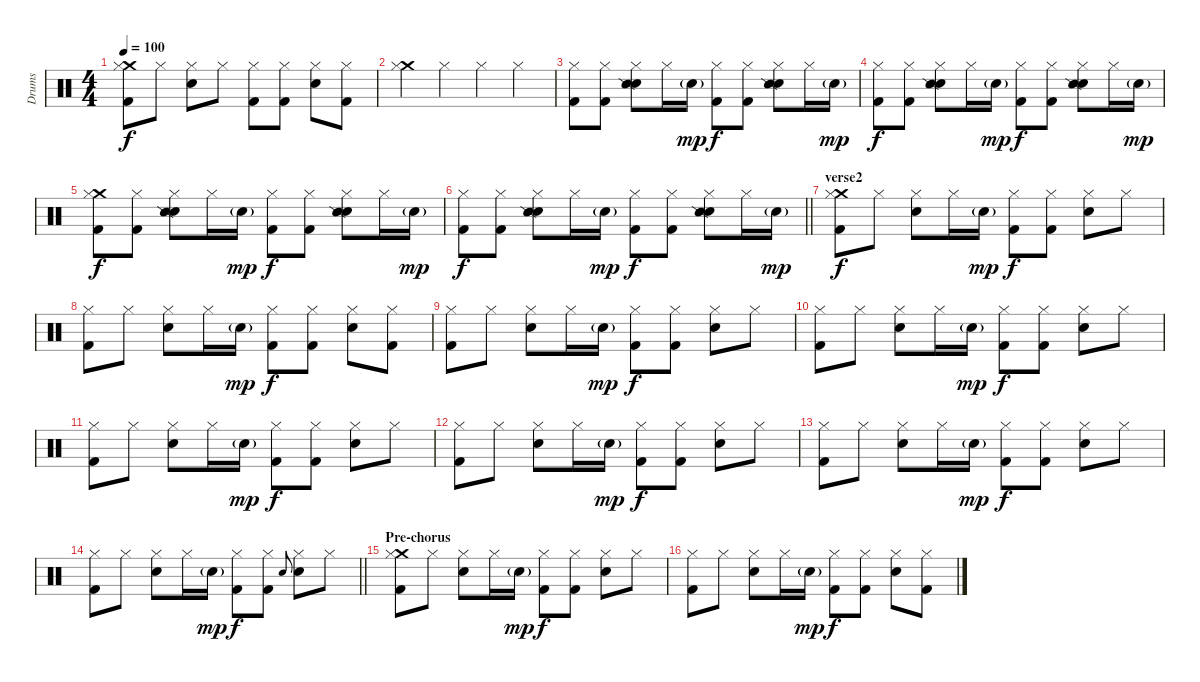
\track ("Drums" "Drums") {instrument percussion}
\staff {score}
\articulation defaults
\ts (4 4)
\tempo 100
\clef neutral
\ks c
("Crash medium (hit)" "Kick (hit) 2" "Hi-Hat (closed)").8{dy f} "Hi-Hat (closed)".8 ("Electric Snare (hit)" "Hi-Hat (closed)").8 "Hi-Hat (closed)".8 ("Kick (hit) 2" "Hi-Hat (closed)").8 ("Kick (hit) 2" "Hi-Hat (closed)").8 ("Electric Snare (hit)" "Hi-Hat (closed)").8 ("Kick (hit) 2" "Hi-Hat (closed)").8 |
("Crash medium (hit)" "Hi-Hat (closed)").4 "Hi-Hat (closed)".4 "Hi-Hat (closed)".4 "Hi-Hat (closed)".4 |
("Hi-Hat (closed)" "Kick (hit) 2").8 ("Hi-Hat (closed)" "Kick (hit) 2").8 ("Hi-Hat (closed)" "Electric Snare (hit)" "Snare (side stick) 2").8 "Hi-Hat (closed)".16 "Electric Snare (hit)"{g}.16{dy mp} ("Hi-Hat (closed)" "Kick (hit) 2").8{dy f} ("Hi-Hat (closed)" "Kick (hit) 2").8 ("Hi-Hat (closed)" "Electric Snare (hit)" "Snare (side stick) 2").8 "Hi-Hat (closed)".16 "Electric Snare (hit)"{g}.16{dy mp} |
("Hi-Hat (closed)" "Kick (hit) 2").8{dy f} ("Hi-Hat (closed)" "Kick (hit) 2").8 ("Hi-Hat (closed)" "Electric Snare (hit)" "Snare (side stick) 2").8 "Hi-Hat (closed)".16 "Electric Snare (hit)"{g}.16{dy mp} ("Hi-Hat (closed)" "Kick (hit) 2").8{dy f} ("Hi-Hat (closed)" "Kick (hit) 2").8 ("Hi-Hat (closed)" "Electric Snare (hit)" "Snare (side stick) 2").8 "Hi-Hat (closed)".16 "Electric Snare (hit)"{g}.16{dy mp} |
("Crash medium (hit)" "Hi-Hat (closed)" "Kick (hit) 2").8{dy f} ("Hi-Hat (closed)" "Kick (hit) 2").8 ("Hi-Hat (closed)" "Electric Snare (hit)" "Snare (side stick) 2").8 "Hi-Hat (closed)".16 "Electric Snare (hit)"{g}.16{dy mp} ("Hi-Hat (closed)" "Kick (hit) 2").8{dy f} ("Hi-Hat (closed)" "Kick (hit) 2").8 ("Hi-Hat (closed)" "Electric Snare (hit)" "Snare (side stick) 2").8 "Hi-Hat (closed)".16 "Electric Snare (hit)"{g}.16{dy mp} |
\barLineRight lightlight
("Hi-Hat (closed)" "Kick (hit) 2").8{dy f} ("Hi-Hat (closed)" "Kick (hit) 2").8 ("Hi-Hat (closed)" "Electric Snare (hit)" "Snare (side stick) 2").8 "Hi-Hat (closed)".16 "Electric Snare (hit)"{g}.16{dy mp} ("Hi-Hat (closed)" "Kick (hit) 2").8{dy f} ("Hi-Hat (closed)" "Kick (hit) 2").8 ("Hi-Hat (closed)" "Electric Snare (hit)" "Snare (side stick) 2").8 "Hi-Hat (closed)".16 "Electric Snare (hit)"{g}.16{dy mp} |
\section ("" "verse2")
("Crash medium (hit)" "Kick (hit) 2" "Hi-Hat (closed)").8{dy f} "Hi-Hat (closed)".8 ("Electric Snare (hit)" "Hi-Hat (closed)").8 "Hi-Hat (closed)".16 "Electric Snare (hit)"{g}.16{dy mp} ("Kick (hit) 2" "Hi-Hat (closed)").8{dy f} ("Kick (hit) 2" "Hi-Hat (closed)").8 ("Electric Snare (hit)" "Hi-Hat (closed)").8 "Hi-Hat (closed)".8 |
("Kick (hit) 2" "Hi-Hat (closed)").8 "Hi-Hat (closed)".8 ("Electric Snare (hit)" "Hi-Hat (closed)").8 "Hi-Hat (closed)".16 "Electric Snare (hit)"{g}.16{dy mp} ("Kick (hit) 2" "Hi-Hat (closed)").8{dy f} ("Kick (hit) 2" "Hi-Hat (closed)").8 ("Electric Snare (hit)" "Hi-Hat (closed)").8 ("Kick (hit) 2" "Hi-Hat (closed)").8 |
("Kick (hit) 2" "Hi-Hat (closed)").8 "Hi-Hat (closed)".8 ("Electric Snare (hit)" "Hi-Hat (closed)").8 "Hi-Hat (closed)".16 "Electric Snare (hit)"{g}.16{dy mp} ("Kick (hit) 2" "Hi-Hat (closed)").8{dy f} ("Kick (hit) 2" "Hi-Hat (closed)").8 ("Electric Snare (hit)" "Hi-Hat (closed)").8 "Hi-Hat (closed)".8 |
("Kick (hit) 2" "Hi-Hat (closed)").8 "Hi-Hat (closed)".8 ("Electric Snare (hit)" "Hi-Hat (closed)").8 "Hi-Hat (closed)".16 "Electric Snare (hit)"{g}.16{dy mp} ("Kick (hit) 2" "Hi-Hat (closed)").8{dy f} ("Kick (hit) 2" "Hi-Hat (closed)").8 ("Electric Snare (hit)" "Hi-Hat (closed)").8 "Hi-Hat (closed)".8 |
("Kick (hit) 2" "Hi-Hat (closed)").8 "Hi-Hat (closed)".8 ("Electric Snare (hit)" "Hi-Hat (closed)").8 "Hi-Hat (closed)".16 "Electric Snare (hit)"{g}.16{dy mp} ("Kick (hit) 2" "Hi-Hat (closed)").8{dy f} ("Kick (hit) 2" "Hi-Hat (closed)").8 ("Electric Snare (hit)" "Hi-Hat (closed)").8 "Hi-Hat (closed)".8 |
("Kick (hit) 2" "Hi-Hat (closed)").8 "Hi-Hat (closed)".8 ("Electric Snare (hit)" "Hi-Hat (closed)").8 "Hi-Hat (closed)".16 "Electric Snare (hit)"{g}.16{dy mp} ("Kick (hit) 2" "Hi-Hat (closed)").8{dy f} ("Kick (hit) 2" "Hi-Hat (closed)").8 ("Electric Snare (hit)" "Hi-Hat (closed)").8 "Hi-Hat (closed)".8 |
("Kick (hit) 2" "Hi-Hat (closed)").8 "Hi-Hat (closed)".8 ("Electric Snare (hit)" "Hi-Hat (closed)").8 "Hi-Hat (closed)".16 "Electric Snare (hit)"{g}.16{dy mp} ("Kick (hit) 2" "Hi-Hat (closed)").8{dy f} ("Kick (hit) 2" "Hi-Hat (closed)").8 ("Electric Snare (hit)" "Hi-Hat (closed)").8 "Hi-Hat (closed)".8 |
\barLineRight lightlight
("Kick (hit) 2" "Hi-Hat (closed)").8 "Hi-Hat (closed)".8 ("Electric Snare (hit)" "Hi-Hat (closed)").8 "Hi-Hat (closed)".16 "Electric Snare (hit)"{g}.16{dy mp} ("Kick (hit) 2" "Hi-Hat (closed)").8{dy f} ("Kick (hit) 2" "Hi-Hat (closed)").8 "Electric Snare (hit)".8{gr onbeat} ("Electric Snare (hit)" "Hi-Hat (closed)").8 "Hi-Hat (closed)".8 |
\section ("" "Pre-chorus")
("Crash medium (hit)" "Kick (hit) 2" "Hi-Hat (closed)").8 "Hi-Hat (closed)".8 ("Electric Snare (hit)" "Hi-Hat (closed)").8 "Hi-Hat (closed)".16 "Electric Snare (hit)"{g}.16{dy mp} ("Kick (hit) 2" "Hi-Hat (closed)").8{dy f} ("Kick (hit) 2" "Hi-Hat (closed)").8 ("Electric Snare (hit)" "Hi-Hat (closed)").8 "Hi-Hat (closed)".8 |
("Kick (hit) 2" "Hi-Hat (closed)").8 "Hi-Hat (closed)".8 ("Electric Snare (hit)" "Hi-Hat (closed)").8 "Hi-Hat (closed)".16 "Electric Snare (hit)"{g}.16{dy mp} ("Kick (hit) 2" "Hi-Hat (closed)").8{dy f} ("Kick (hit) 2" "Hi-Hat (closed)").8 ("Electric Snare (hit)" "Hi-Hat (closed)").8 ("Kick (hit) 2" "Hi-Hat (closed)").8
